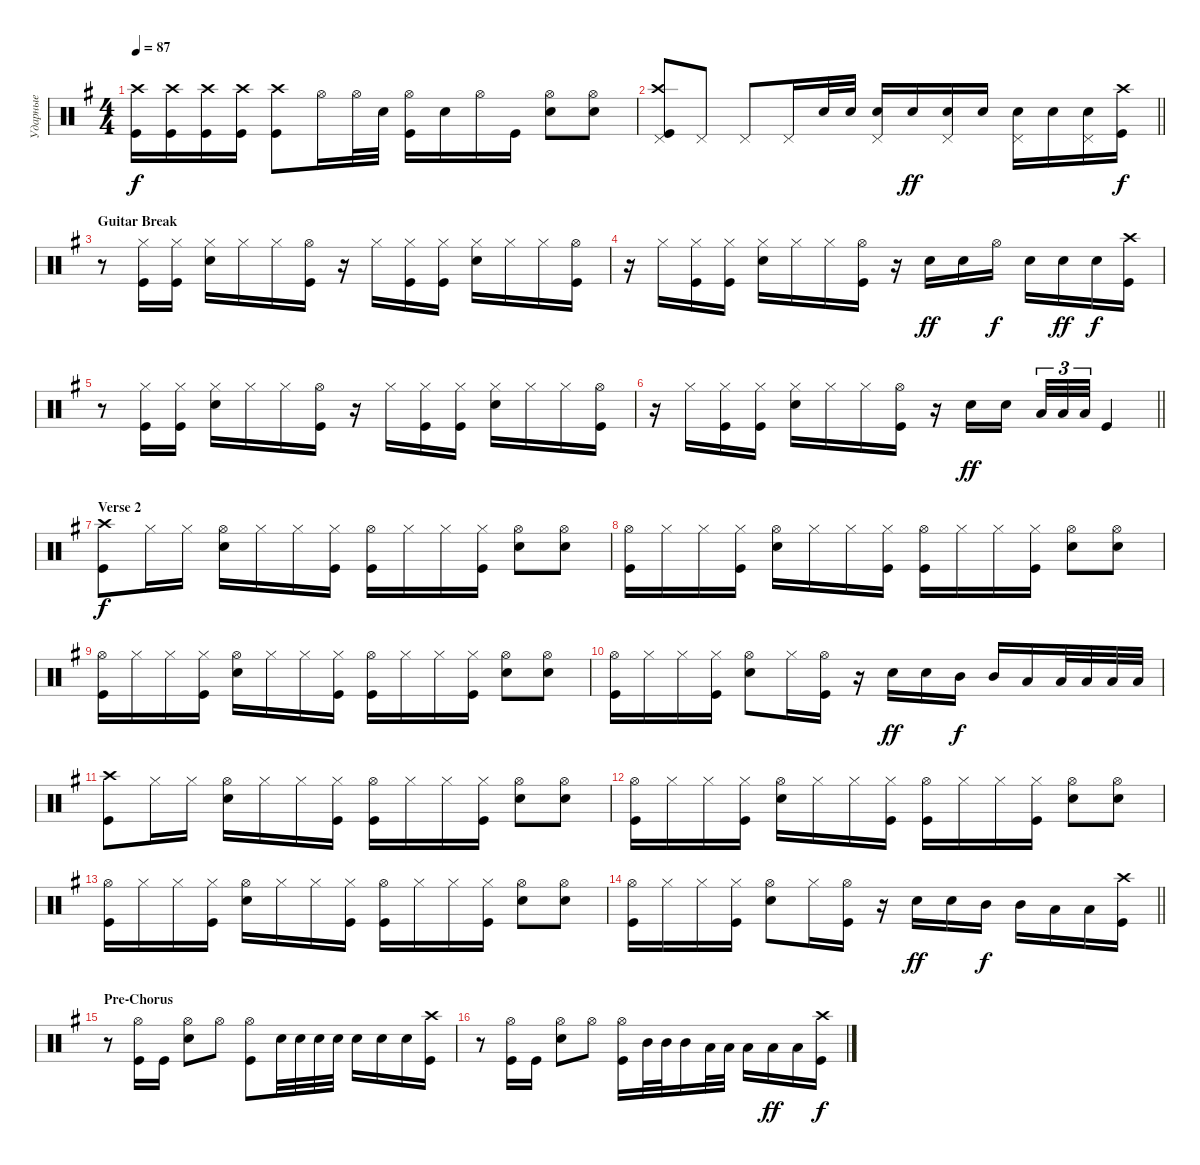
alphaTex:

\track ("Ударные" "Ударные") {instrument percussion}
\staff {score}
\articulation defaults
\ts (4 4)
\tempo 87
\clef neutral
\ks eminor
("Kick (hit)" "Crash high (hit)").16{dy f} ("Kick (hit)" "Crash high (hit)").16 ("Kick (hit)" "Crash high (hit)").16 ("Kick (hit)" "Crash high (hit)").16 ("Kick (hit)" "Crash high (hit)").8 "Hi-Hat (open)".16 "Hi-Hat (open)".32 "Snare (hit) 2".32 ("Kick (hit)" "Hi-Hat (open)").16 "Snare (hit) 2".16 "Hi-Hat (open)".16 "Kick (hit)".16 ("Snare (hit) 2" "Hi-Hat (open)").8 ("Snare (hit) 2" "Hi-Hat (open)").8 |
\barLineRight lightlight
("Kick (hit)" "Crash high (hit)" "Pedal Hi-Hat (hit)").8 "Pedal Hi-Hat (hit)".8 "Pedal Hi-Hat (hit)".8 "Pedal Hi-Hat (hit)".16 "Snare (hit) 2".32 "Snare (hit) 2".32 ("Snare (hit) 2" "Pedal Hi-Hat (hit)").16 "Snare (hit) 2".16{dy ff} ("Snare (hit) 2" "Pedal Hi-Hat (hit)").16 "Snare (hit) 2".16 ("Snare (hit) 2" "Pedal Hi-Hat (hit)").16 "Snare (hit) 2".16 ("Snare (hit) 2" "Pedal Hi-Hat (hit)").16 ("Kick (hit)" "Crash high (hit)").16{dy f} |
\section ("" "Guitar Break")
r.8 ("Kick (hit)" "Hi-Hat (closed)").16 ("Kick (hit)" "Hi-Hat (closed)").16 ("Snare (hit) 2" "Hi-Hat (closed)").16 "Hi-Hat (closed)".16 "Hi-Hat (closed)".16 ("Hi-Hat (open)" "Kick (hit)").16 r.16 "Hi-Hat (closed)".16 ("Hi-Hat (closed)" "Kick (hit)").16 ("Hi-Hat (closed)" "Kick (hit)").16 ("Hi-Hat (closed)" "Snare (hit) 2").16 "Hi-Hat (closed)".16 "Hi-Hat (closed)".16 ("Kick (hit)" "Hi-Hat (open)").16 |
r.16 "Hi-Hat (closed)".16 ("Hi-Hat (closed)" "Kick (hit)").16 ("Hi-Hat (closed)" "Kick (hit)").16 ("Hi-Hat (closed)" "Snare (hit) 2").16 "Hi-Hat (closed)".16 "Hi-Hat (closed)".16 ("Kick (hit)" "Hi-Hat (open)").16 r.16 "Snare (hit) 2".16{dy ff} "Snare (hit) 2".16 "Hi-Hat (open)".16{dy f} "Snare (hit) 2".16 "Snare (hit) 2".16{dy ff} "Snare (hit) 2".16{dy f} ("Kick (hit)" "Crash high (hit)").16 |
r.8 ("Kick (hit)" "Hi-Hat (closed)").16 ("Kick (hit)" "Hi-Hat (closed)").16 ("Snare (hit) 2" "Hi-Hat (closed)").16 "Hi-Hat (closed)".16 "Hi-Hat (closed)".16 ("Hi-Hat (open)" "Kick (hit)").16 r.16 "Hi-Hat (closed)".16 ("Hi-Hat (closed)" "Kick (hit)").16 ("Hi-Hat (closed)" "Kick (hit)").16 ("Hi-Hat (closed)" "Snare (hit) 2").16 "Hi-Hat (closed)".16 "Hi-Hat (closed)".16 ("Kick (hit)" "Hi-Hat (open)").16 |
\barLineRight lightlight
r.16 "Hi-Hat (closed)".16 ("Kick (hit)" "Hi-Hat (closed)").16 ("Kick (hit)" "Hi-Hat (closed)").16 ("Snare (hit) 2" "Hi-Hat (closed)").16 "Hi-Hat (closed)".16 "Hi-Hat (closed)".16 ("Hi-Hat (open)" "Kick (hit)").16 r.16 "Snare (hit) 2".16{dy ff} "Snare (hit) 2".16{beam splitsecondary} "Low Tom (hit)".32{tu (3 2)} "Low Tom (hit)".32{tu (3 2)} "Low Tom (hit)".32{tu (3 2)} "Kick (hit)".4 |
\section ("" "Verse 2")
("Kick (hit)" "Crash high (hit)").8{dy f} "Hi-Hat (closed)".16 "Hi-Hat (closed)".16 ("Snare (hit) 2" "Hi-Hat (open)").16 "Hi-Hat (closed)".16 "Hi-Hat (closed)".16 ("Hi-Hat (closed)" "Kick (hit)").16 ("Hi-Hat (open)" "Kick (hit)").16 "Hi-Hat (closed)".16 "Hi-Hat (closed)".16 ("Hi-Hat (closed)" "Kick (hit)").16 ("Hi-Hat (open)" "Snare (hit) 2").8 ("Hi-Hat (open)" "Snare (hit) 2").8 |
("Kick (hit)" "Hi-Hat (open)").16 "Hi-Hat (closed)".16 "Hi-Hat (closed)".16 ("Hi-Hat (closed)" "Kick (hit)").16 ("Snare (hit) 2" "Hi-Hat (open)").16 "Hi-Hat (closed)".16 "Hi-Hat (closed)".16 ("Hi-Hat (closed)" "Kick (hit)").16 ("Hi-Hat (open)" "Kick (hit)").16 "Hi-Hat (closed)".16 "Hi-Hat (closed)".16 ("Hi-Hat (closed)" "Kick (hit)").16 ("Hi-Hat (open)" "Snare (hit) 2").8 ("Hi-Hat (open)" "Snare (hit) 2").8 |
("Kick (hit)" "Hi-Hat (open)").16 "Hi-Hat (closed)".16 "Hi-Hat (closed)".16 ("Hi-Hat (closed)" "Kick (hit)").16 ("Snare (hit) 2" "Hi-Hat (open)").16 "Hi-Hat (closed)".16 "Hi-Hat (closed)".16 ("Hi-Hat (closed)" "Kick (hit)").16 ("Hi-Hat (open)" "Kick (hit)").16 "Hi-Hat (closed)".16 "Hi-Hat (closed)".16 ("Hi-Hat (closed)" "Kick (hit)").16 ("Hi-Hat (open)" "Snare (hit) 2").8 ("Hi-Hat (open)" "Snare (hit) 2").8 |
("Kick (hit)" "Hi-Hat (open)").16 "Hi-Hat (closed)".16 "Hi-Hat (closed)".16 ("Hi-Hat (closed)" "Kick (hit)").16 ("Snare (hit) 2" "Hi-Hat (open)").8 "Hi-Hat (closed)".16 ("Hi-Hat (open)" "Kick (hit)").16 r.16 "Snare (hit) 2".16{dy ff} "Snare (hit) 2".16 "Mid Tom (hit)".16{dy f} "Mid Tom (hit)".16 "Low Tom (hit)".16 "Low Tom (hit)".32 "Low Tom (hit)".32 "Low Tom (hit)".32 "Low Tom (hit)".32 |
("Kick (hit)" "Crash high (hit)").8 "Hi-Hat (closed)".16 "Hi-Hat (closed)".16 ("Snare (hit) 2" "Hi-Hat (open)").16 "Hi-Hat (closed)".16 "Hi-Hat (closed)".16 ("Hi-Hat (closed)" "Kick (hit)").16 ("Hi-Hat (open)" "Kick (hit)").16 "Hi-Hat (closed)".16 "Hi-Hat (closed)".16 ("Hi-Hat (closed)" "Kick (hit)").16 ("Hi-Hat (open)" "Snare (hit) 2").8 ("Hi-Hat (open)" "Snare (hit) 2").8 |
("Kick (hit)" "Hi-Hat (open)").16 "Hi-Hat (closed)".16 "Hi-Hat (closed)".16 ("Hi-Hat (closed)" "Kick (hit)").16 ("Snare (hit) 2" "Hi-Hat (open)").16 "Hi-Hat (closed)".16 "Hi-Hat (closed)".16 ("Hi-Hat (closed)" "Kick (hit)").16 ("Hi-Hat (open)" "Kick (hit)").16 "Hi-Hat (closed)".16 "Hi-Hat (closed)".16 ("Hi-Hat (closed)" "Kick (hit)").16 ("Hi-Hat (open)" "Snare (hit) 2").8 ("Hi-Hat (open)" "Snare (hit) 2").8 |
("Kick (hit)" "Hi-Hat (open)").16 "Hi-Hat (closed)".16 "Hi-Hat (closed)".16 ("Hi-Hat (closed)" "Kick (hit)").16 ("Snare (hit) 2" "Hi-Hat (open)").16 "Hi-Hat (closed)".16 "Hi-Hat (closed)".16 ("Hi-Hat (closed)" "Kick (hit)").16 ("Hi-Hat (open)" "Kick (hit)").16 "Hi-Hat (closed)".16 "Hi-Hat (closed)".16 ("Hi-Hat (closed)" "Kick (hit)").16 ("Hi-Hat (open)" "Snare (hit) 2").8 ("Hi-Hat (open)" "Snare (hit) 2").8 |
\barLineRight lightlight
("Kick (hit)" "Hi-Hat (open)").16 "Hi-Hat (closed)".16 "Hi-Hat (closed)".16 ("Hi-Hat (closed)" "Kick (hit)").16 ("Snare (hit) 2" "Hi-Hat (open)").8 "Hi-Hat (closed)".16 ("Hi-Hat (open)" "Kick (hit)").16 r.16 "Snare (hit) 2".16{dy ff} "Snare (hit) 2".16 "Mid Tom (hit)".16{dy f} "Mid Tom (hit)".16 "Low Tom (hit)".16 "Low Tom (hit)".16 ("Kick (hit)" "Crash high (hit)").16 |
\section ("" "Pre-Chorus")
r.8 ("Kick (hit)" "Hi-Hat (open)").16 "Kick (hit)".16 ("Snare (hit) 2" "Hi-Hat (open)").8 "Hi-Hat (open)".8 ("Kick (hit)" "Hi-Hat (open)").8 "Snare (hit) 2".32 "Snare (hit) 2".32 "Snare (hit) 2".32 "Snare (hit) 2".32 "Snare (hit) 2".16 "Snare (hit) 2".16 "Snare (hit) 2".16 ("Kick (hit)" "Crash high (hit)").16 |
r.8 ("Kick (hit)" "Hi-Hat (open)").16 "Kick (hit)".16 ("Snare (hit) 2" "Hi-Hat (open)").8 "Hi-Hat (open)".8 ("Kick (hit)" "Hi-Hat (open)").16 "Mid Tom (hit)".32 "Mid Tom (hit)".32 "Mid Tom (hit)".16 "Low Tom (hit)".32 "Low Tom (hit)".32 "Low Tom (hit)".16 "Low Tom (hit)".16{dy ff} "Low Tom (hit)".16 ("Kick (hit)" "Crash high (hit)").16{dy f}
